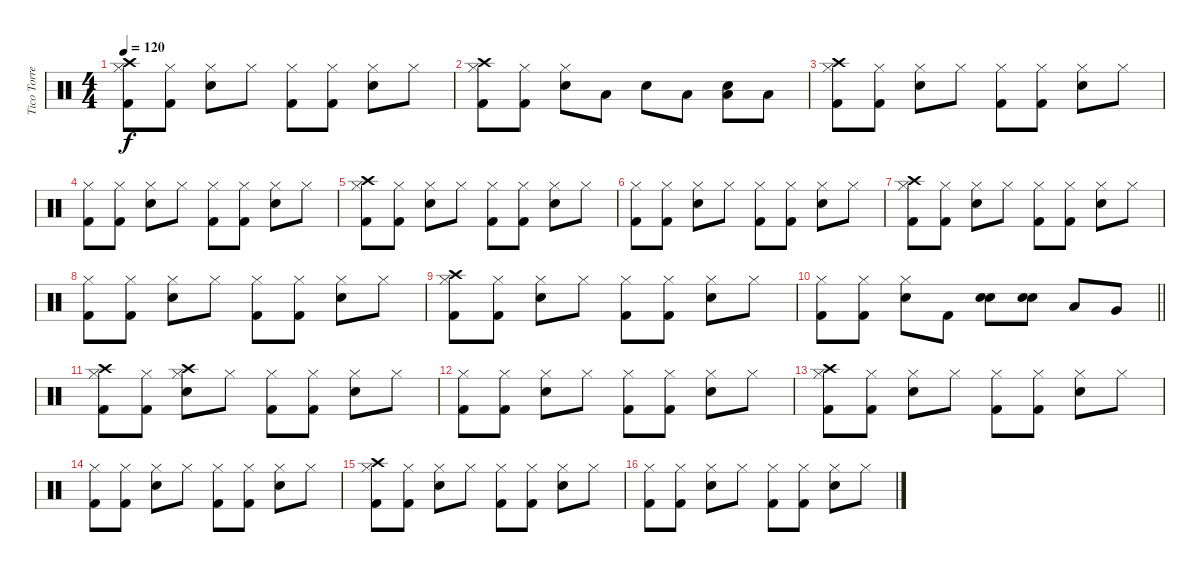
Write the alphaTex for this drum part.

\track ("Tico Torres (Drums)" "Tico Torre") {instrument percussion}
\staff {score}
\articulation defaults
\ts (4 4)
\tempo 120
\clef neutral
\ks c
("Crash high (hit)" "Hi-Hat (closed)" "Kick (hit) 2").8{dy f} ("Hi-Hat (closed)" "Kick (hit) 2").8 ("Hi-Hat (closed)" "Electric Snare (hit)").8 "Hi-Hat (closed)".8 ("Hi-Hat (closed)" "Kick (hit) 2").8 ("Hi-Hat (closed)" "Kick (hit) 2").8 ("Hi-Hat (closed)" "Electric Snare (hit)").8 "Hi-Hat (closed)".8 |
("Crash high (hit)" "Hi-Hat (closed)" "Kick (hit) 2").8 ("Hi-Hat (closed)" "Kick (hit) 2").8 ("Hi-Hat (closed)" "Electric Snare (hit)").8 "Low Tom (hit)".8 "Electric Snare (hit)".8 "Low Tom (hit)".8 ("Low Tom (hit)" "Electric Snare (hit)").8 "Low Tom (hit)".8 |
("Crash high (hit)" "Hi-Hat (closed)" "Kick (hit) 2").8 ("Hi-Hat (closed)" "Kick (hit) 2").8 ("Hi-Hat (closed)" "Electric Snare (hit)").8 "Hi-Hat (closed)".8 ("Hi-Hat (closed)" "Kick (hit) 2").8 ("Hi-Hat (closed)" "Kick (hit) 2").8 ("Hi-Hat (closed)" "Electric Snare (hit)").8 "Hi-Hat (closed)".8 |
("Hi-Hat (closed)" "Kick (hit) 2").8 ("Hi-Hat (closed)" "Kick (hit) 2").8 ("Hi-Hat (closed)" "Electric Snare (hit)").8 "Hi-Hat (closed)".8 ("Hi-Hat (closed)" "Kick (hit) 2").8 ("Hi-Hat (closed)" "Kick (hit) 2").8 ("Hi-Hat (closed)" "Electric Snare (hit)").8 "Hi-Hat (closed)".8 |
("Crash high (hit)" "Hi-Hat (closed)" "Kick (hit) 2").8 ("Hi-Hat (closed)" "Kick (hit) 2").8 ("Hi-Hat (closed)" "Electric Snare (hit)").8 "Hi-Hat (closed)".8 ("Hi-Hat (closed)" "Kick (hit) 2").8 ("Hi-Hat (closed)" "Kick (hit) 2").8 ("Hi-Hat (closed)" "Electric Snare (hit)").8 "Hi-Hat (closed)".8 |
("Hi-Hat (closed)" "Kick (hit) 2").8 ("Hi-Hat (closed)" "Kick (hit) 2").8 ("Hi-Hat (closed)" "Electric Snare (hit)").8 "Hi-Hat (closed)".8 ("Hi-Hat (closed)" "Kick (hit) 2").8 ("Hi-Hat (closed)" "Kick (hit) 2").8 ("Hi-Hat (closed)" "Electric Snare (hit)").8 "Hi-Hat (closed)".8 |
("Crash high (hit)" "Hi-Hat (closed)" "Kick (hit) 2").8 ("Hi-Hat (closed)" "Kick (hit) 2").8 ("Hi-Hat (closed)" "Electric Snare (hit)").8 "Hi-Hat (closed)".8 ("Hi-Hat (closed)" "Kick (hit) 2").8 ("Hi-Hat (closed)" "Kick (hit) 2").8 ("Hi-Hat (closed)" "Electric Snare (hit)").8 "Hi-Hat (closed)".8 |
("Hi-Hat (closed)" "Kick (hit) 2").8 ("Hi-Hat (closed)" "Kick (hit) 2").8 ("Hi-Hat (closed)" "Electric Snare (hit)").8 "Hi-Hat (closed)".8 ("Hi-Hat (closed)" "Kick (hit) 2").8 ("Hi-Hat (closed)" "Kick (hit) 2").8 ("Hi-Hat (closed)" "Electric Snare (hit)").8 "Hi-Hat (closed)".8 |
("Crash high (hit)" "Hi-Hat (closed)" "Kick (hit) 2").8 ("Hi-Hat (closed)" "Kick (hit) 2").8 ("Hi-Hat (closed)" "Electric Snare (hit)").8 "Hi-Hat (closed)".8 ("Hi-Hat (closed)" "Kick (hit) 2").8 ("Hi-Hat (closed)" "Kick (hit) 2").8 ("Hi-Hat (closed)" "Electric Snare (hit)").8 "Hi-Hat (closed)".8 |
\barLineRight lightlight
("Hi-Hat (closed)" "Kick (hit) 2").8 ("Hi-Hat (closed)" "Kick (hit) 2").8 ("Hi-Hat (closed)" "Electric Snare (hit)").8 "Kick (hit) 2".8 ("Electric Snare (hit)" "Electric Snare (hit)").8{bd 120} ("Electric Snare (hit)" "Electric Snare (hit)").8{bd 120} "Low Tom (hit)".8 "Very Low Tom (hit)".8 |
("Crash high (hit)" "Hi-Hat (closed)" "Kick (hit) 2").8 ("Hi-Hat (closed)" "Kick (hit) 2").8 ("Crash high (hit)" "Hi-Hat (closed)" "Electric Snare (hit)").8 "Hi-Hat (closed)".8 ("Hi-Hat (closed)" "Kick (hit) 2").8 ("Hi-Hat (closed)" "Kick (hit) 2").8 ("Hi-Hat (closed)" "Electric Snare (hit)").8 "Hi-Hat (closed)".8 |
("Hi-Hat (closed)" "Kick (hit) 2").8 ("Hi-Hat (closed)" "Kick (hit) 2").8 ("Hi-Hat (closed)" "Electric Snare (hit)").8 "Hi-Hat (closed)".8 ("Hi-Hat (closed)" "Kick (hit) 2").8 ("Hi-Hat (closed)" "Kick (hit) 2").8 ("Hi-Hat (closed)" "Electric Snare (hit)").8 "Hi-Hat (closed)".8 |
("Crash high (hit)" "Hi-Hat (closed)" "Kick (hit) 2").8 ("Hi-Hat (closed)" "Kick (hit) 2").8 ("Hi-Hat (closed)" "Electric Snare (hit)").8 "Hi-Hat (closed)".8 ("Hi-Hat (closed)" "Kick (hit) 2").8 ("Hi-Hat (closed)" "Kick (hit) 2").8 ("Hi-Hat (closed)" "Electric Snare (hit)").8 "Hi-Hat (closed)".8 |
("Hi-Hat (closed)" "Kick (hit) 2").8 ("Hi-Hat (closed)" "Kick (hit) 2").8 ("Hi-Hat (closed)" "Electric Snare (hit)").8 "Hi-Hat (closed)".8 ("Hi-Hat (closed)" "Kick (hit) 2").8 ("Hi-Hat (closed)" "Kick (hit) 2").8 ("Hi-Hat (closed)" "Electric Snare (hit)").8 "Hi-Hat (closed)".8 |
("Crash high (hit)" "Hi-Hat (closed)" "Kick (hit) 2").8 ("Hi-Hat (closed)" "Kick (hit) 2").8 ("Hi-Hat (closed)" "Electric Snare (hit)").8 "Hi-Hat (closed)".8 ("Hi-Hat (closed)" "Kick (hit) 2").8 ("Hi-Hat (closed)" "Kick (hit) 2").8 ("Hi-Hat (closed)" "Electric Snare (hit)").8 "Hi-Hat (closed)".8 |
("Hi-Hat (closed)" "Kick (hit) 2").8 ("Hi-Hat (closed)" "Kick (hit) 2").8 ("Hi-Hat (closed)" "Electric Snare (hit)").8 "Hi-Hat (closed)".8 ("Hi-Hat (closed)" "Kick (hit) 2").8 ("Hi-Hat (closed)" "Kick (hit) 2").8 ("Hi-Hat (closed)" "Electric Snare (hit)").8 "Hi-Hat (closed)".8
